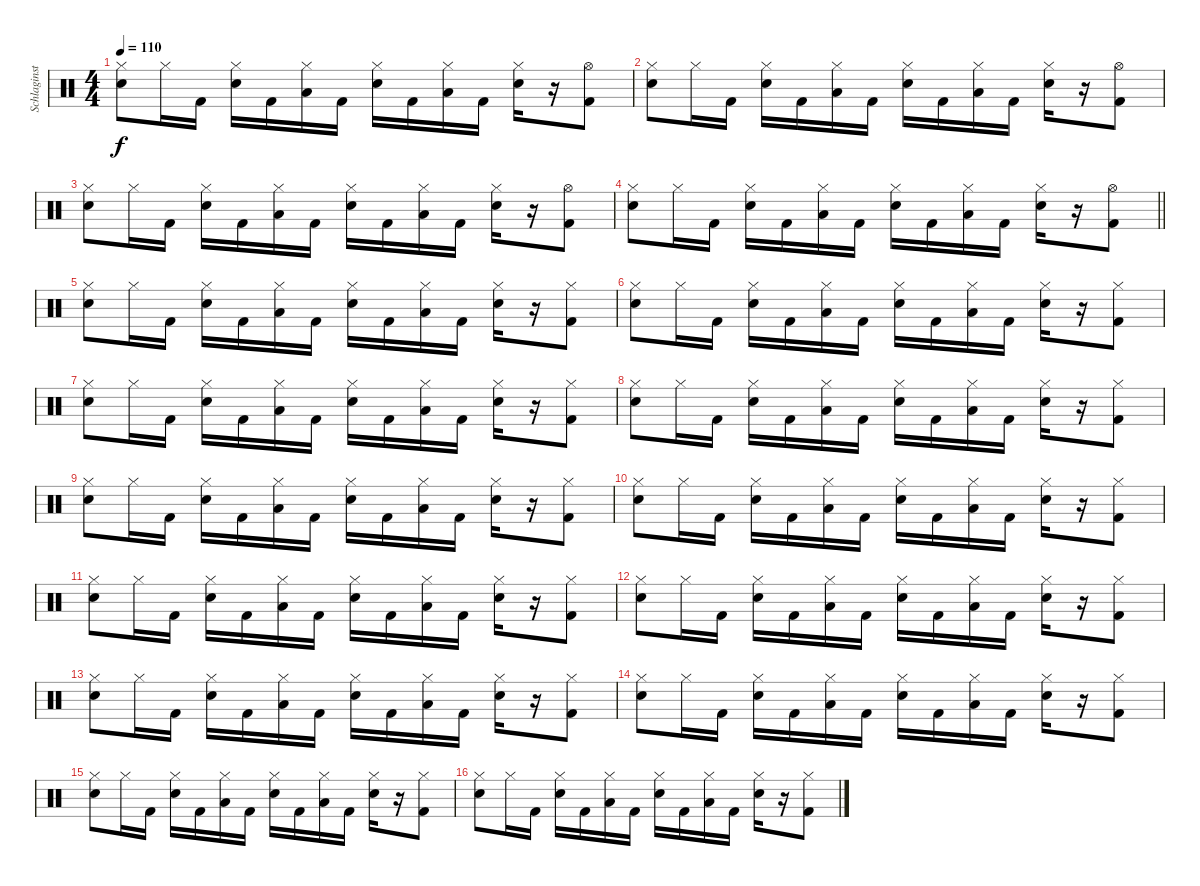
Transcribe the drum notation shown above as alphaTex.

\track ("Schlaginstrumente - Auswahl" "Schlaginst") {instrument percussion}
\staff {score}
\articulation defaults
\ts (4 4)
\tempo 110
\clef neutral
\ks c
("Hi-Hat (closed)" "Snare (hit) 2").8{dy f} "Hi-Hat (closed)".16 "Kick (hit) 2".16 ("Hi-Hat (closed)" "Snare (hit) 2").16 "Kick (hit) 2".16 ("Hi-Hat (closed)" "Low Floor Tom (hit)").16 "Kick (hit) 2".16 ("Hi-Hat (closed)" "Snare (hit) 2").16 "Kick (hit) 2".16 ("Hi-Hat (closed)" "Low Floor Tom (hit)").16 "Kick (hit) 2".16 ("Hi-Hat (closed)" "Snare (hit) 2").16 r.16 ("Hi-Hat (open)" "Kick (hit) 2").8 |
("Hi-Hat (closed)" "Snare (hit) 2").8 "Hi-Hat (closed)".16 "Kick (hit) 2".16 ("Hi-Hat (closed)" "Snare (hit) 2").16 "Kick (hit) 2".16 ("Hi-Hat (closed)" "Low Floor Tom (hit)").16 "Kick (hit) 2".16 ("Hi-Hat (closed)" "Snare (hit) 2").16 "Kick (hit) 2".16 ("Hi-Hat (closed)" "Low Floor Tom (hit)").16 "Kick (hit) 2".16 ("Hi-Hat (closed)" "Snare (hit) 2").16 r.16 ("Hi-Hat (open)" "Kick (hit) 2").8 |
("Hi-Hat (closed)" "Snare (hit) 2").8 "Hi-Hat (closed)".16 "Kick (hit) 2".16 ("Hi-Hat (closed)" "Snare (hit) 2").16 "Kick (hit) 2".16 ("Hi-Hat (closed)" "Low Floor Tom (hit)").16 "Kick (hit) 2".16 ("Hi-Hat (closed)" "Snare (hit) 2").16 "Kick (hit) 2".16 ("Hi-Hat (closed)" "Low Floor Tom (hit)").16 "Kick (hit) 2".16 ("Hi-Hat (closed)" "Snare (hit) 2").16 r.16 ("Hi-Hat (open)" "Kick (hit) 2").8 |
\barLineRight lightlight
("Hi-Hat (closed)" "Snare (hit) 2").8 "Hi-Hat (closed)".16 "Kick (hit) 2".16 ("Hi-Hat (closed)" "Snare (hit) 2").16 "Kick (hit) 2".16 ("Hi-Hat (closed)" "Low Floor Tom (hit)").16 "Kick (hit) 2".16 ("Hi-Hat (closed)" "Snare (hit) 2").16 "Kick (hit) 2".16 ("Hi-Hat (closed)" "Low Floor Tom (hit)").16 "Kick (hit) 2".16 ("Hi-Hat (closed)" "Snare (hit) 2").16 r.16 ("Hi-Hat (open)" "Kick (hit) 2").8 |
("Hi-Hat (closed)" "Snare (hit) 2").8 "Hi-Hat (closed)".16 "Kick (hit) 2".16 ("Hi-Hat (closed)" "Snare (hit) 2").16 "Kick (hit) 2".16 ("Hi-Hat (closed)" "Low Floor Tom (hit)").16 "Kick (hit) 2".16 ("Hi-Hat (closed)" "Snare (hit) 2").16 "Kick (hit) 2".16 ("Hi-Hat (closed)" "Low Floor Tom (hit)").16 "Kick (hit) 2".16 ("Hi-Hat (closed)" "Snare (hit) 2").16 r.16 ("Hi-Hat (closed)" "Kick (hit) 2").8 |
("Hi-Hat (closed)" "Snare (hit) 2").8 "Hi-Hat (closed)".16 "Kick (hit) 2".16 ("Hi-Hat (closed)" "Snare (hit) 2").16 "Kick (hit) 2".16 ("Hi-Hat (closed)" "Low Floor Tom (hit)").16 "Kick (hit) 2".16 ("Hi-Hat (closed)" "Snare (hit) 2").16 "Kick (hit) 2".16 ("Hi-Hat (closed)" "Low Floor Tom (hit)").16 "Kick (hit) 2".16 ("Hi-Hat (closed)" "Snare (hit) 2").16 r.16 ("Hi-Hat (closed)" "Kick (hit) 2").8 |
("Hi-Hat (closed)" "Snare (hit) 2").8 "Hi-Hat (closed)".16 "Kick (hit) 2".16 ("Hi-Hat (closed)" "Snare (hit) 2").16 "Kick (hit) 2".16 ("Hi-Hat (closed)" "Low Floor Tom (hit)").16 "Kick (hit) 2".16 ("Hi-Hat (closed)" "Snare (hit) 2").16 "Kick (hit) 2".16 ("Hi-Hat (closed)" "Low Floor Tom (hit)").16 "Kick (hit) 2".16 ("Hi-Hat (closed)" "Snare (hit) 2").16 r.16 ("Hi-Hat (closed)" "Kick (hit) 2").8 |
("Hi-Hat (closed)" "Snare (hit) 2").8 "Hi-Hat (closed)".16 "Kick (hit) 2".16 ("Hi-Hat (closed)" "Snare (hit) 2").16 "Kick (hit) 2".16 ("Hi-Hat (closed)" "Low Floor Tom (hit)").16 "Kick (hit) 2".16 ("Hi-Hat (closed)" "Snare (hit) 2").16 "Kick (hit) 2".16 ("Hi-Hat (closed)" "Low Floor Tom (hit)").16 "Kick (hit) 2".16 ("Hi-Hat (closed)" "Snare (hit) 2").16 r.16 ("Hi-Hat (closed)" "Kick (hit) 2").8 |
("Hi-Hat (closed)" "Snare (hit) 2").8 "Hi-Hat (closed)".16 "Kick (hit) 2".16 ("Hi-Hat (closed)" "Snare (hit) 2").16 "Kick (hit) 2".16 ("Hi-Hat (closed)" "Low Floor Tom (hit)").16 "Kick (hit) 2".16 ("Hi-Hat (closed)" "Snare (hit) 2").16 "Kick (hit) 2".16 ("Hi-Hat (closed)" "Low Floor Tom (hit)").16 "Kick (hit) 2".16 ("Hi-Hat (closed)" "Snare (hit) 2").16 r.16 ("Hi-Hat (closed)" "Kick (hit) 2").8 |
("Hi-Hat (closed)" "Snare (hit) 2").8 "Hi-Hat (closed)".16 "Kick (hit) 2".16 ("Hi-Hat (closed)" "Snare (hit) 2").16 "Kick (hit) 2".16 ("Hi-Hat (closed)" "Low Floor Tom (hit)").16 "Kick (hit) 2".16 ("Hi-Hat (closed)" "Snare (hit) 2").16 "Kick (hit) 2".16 ("Hi-Hat (closed)" "Low Floor Tom (hit)").16 "Kick (hit) 2".16 ("Hi-Hat (closed)" "Snare (hit) 2").16 r.16 ("Hi-Hat (closed)" "Kick (hit) 2").8 |
("Hi-Hat (closed)" "Snare (hit) 2").8 "Hi-Hat (closed)".16 "Kick (hit) 2".16 ("Hi-Hat (closed)" "Snare (hit) 2").16 "Kick (hit) 2".16 ("Hi-Hat (closed)" "Low Floor Tom (hit)").16 "Kick (hit) 2".16 ("Hi-Hat (closed)" "Snare (hit) 2").16 "Kick (hit) 2".16 ("Hi-Hat (closed)" "Low Floor Tom (hit)").16 "Kick (hit) 2".16 ("Hi-Hat (closed)" "Snare (hit) 2").16 r.16 ("Hi-Hat (closed)" "Kick (hit) 2").8 |
("Hi-Hat (closed)" "Snare (hit) 2").8 "Hi-Hat (closed)".16 "Kick (hit) 2".16 ("Hi-Hat (closed)" "Snare (hit) 2").16 "Kick (hit) 2".16 ("Hi-Hat (closed)" "Low Floor Tom (hit)").16 "Kick (hit) 2".16 ("Hi-Hat (closed)" "Snare (hit) 2").16 "Kick (hit) 2".16 ("Hi-Hat (closed)" "Low Floor Tom (hit)").16 "Kick (hit) 2".16 ("Hi-Hat (closed)" "Snare (hit) 2").16 r.16 ("Hi-Hat (closed)" "Kick (hit) 2").8 |
("Hi-Hat (closed)" "Snare (hit) 2").8 "Hi-Hat (closed)".16 "Kick (hit) 2".16 ("Hi-Hat (closed)" "Snare (hit) 2").16 "Kick (hit) 2".16 ("Hi-Hat (closed)" "Low Floor Tom (hit)").16 "Kick (hit) 2".16 ("Hi-Hat (closed)" "Snare (hit) 2").16 "Kick (hit) 2".16 ("Hi-Hat (closed)" "Low Floor Tom (hit)").16 "Kick (hit) 2".16 ("Hi-Hat (closed)" "Snare (hit) 2").16 r.16 ("Hi-Hat (closed)" "Kick (hit) 2").8 |
("Hi-Hat (closed)" "Snare (hit) 2").8 "Hi-Hat (closed)".16 "Kick (hit) 2".16 ("Hi-Hat (closed)" "Snare (hit) 2").16 "Kick (hit) 2".16 ("Hi-Hat (closed)" "Low Floor Tom (hit)").16 "Kick (hit) 2".16 ("Hi-Hat (closed)" "Snare (hit) 2").16 "Kick (hit) 2".16 ("Hi-Hat (closed)" "Low Floor Tom (hit)").16 "Kick (hit) 2".16 ("Hi-Hat (closed)" "Snare (hit) 2").16 r.16 ("Hi-Hat (closed)" "Kick (hit) 2").8 |
("Hi-Hat (closed)" "Snare (hit) 2").8 "Hi-Hat (closed)".16 "Kick (hit) 2".16 ("Hi-Hat (closed)" "Snare (hit) 2").16 "Kick (hit) 2".16 ("Hi-Hat (closed)" "Low Floor Tom (hit)").16 "Kick (hit) 2".16 ("Hi-Hat (closed)" "Snare (hit) 2").16 "Kick (hit) 2".16 ("Hi-Hat (closed)" "Low Floor Tom (hit)").16 "Kick (hit) 2".16 ("Hi-Hat (closed)" "Snare (hit) 2").16 r.16 ("Hi-Hat (closed)" "Kick (hit) 2").8 |
("Hi-Hat (closed)" "Snare (hit) 2").8 "Hi-Hat (closed)".16 "Kick (hit) 2".16 ("Hi-Hat (closed)" "Snare (hit) 2").16 "Kick (hit) 2".16 ("Hi-Hat (closed)" "Low Floor Tom (hit)").16 "Kick (hit) 2".16 ("Hi-Hat (closed)" "Snare (hit) 2").16 "Kick (hit) 2".16 ("Hi-Hat (closed)" "Low Floor Tom (hit)").16 "Kick (hit) 2".16 ("Hi-Hat (closed)" "Snare (hit) 2").16 r.16 ("Hi-Hat (closed)" "Kick (hit) 2").8
